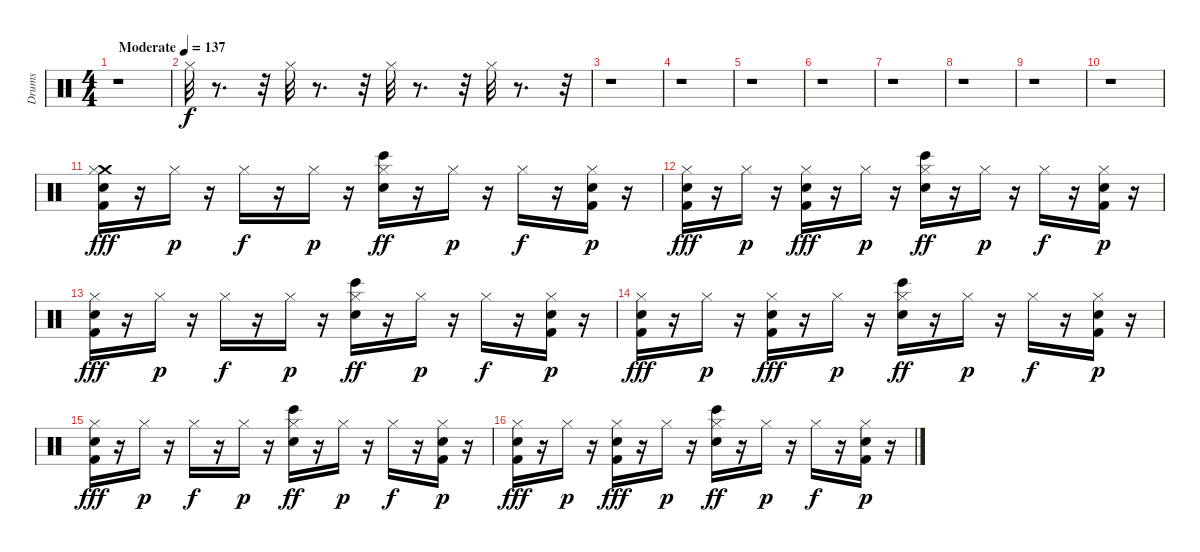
\track ("Drums" "Drums") {instrument percussion}
\staff {score}
\articulation defaults
\ts (4 4)
\tempo (137 "Moderate")
\clef neutral
\ks c
r.1{dy f} |
"Hi-Hat (closed)".32 r.8{d} r.32 "Hi-Hat (closed)".32 r.8{d} r.32 "Hi-Hat (closed)".32 r.8{d} r.32 "Hi-Hat (closed)".32 r.8{d} r.32 |
r.1 |
r.1 |
r.1 |
r.1 |
r.1 |
r.1 |
r.1 |
r.1 |
("Crash medium (hit)" "Kick (hit) 2" "Snare (hit)" "Hi-Hat (closed)").16{dy fff} r.16 "Hi-Hat (closed)".16{dy p} r.16 "Hi-Hat (closed)".16{dy f} r.16 "Hi-Hat (closed)".16{dy p} r.16 ("Snare (hit) 2" "Bongo High (hit)" "Hi-Hat (closed)").16{dy ff} r.16 "Hi-Hat (closed)".16{dy p} r.16 "Hi-Hat (closed)".16{dy f} r.16 ("Kick (hit) 2" "Snare (hit)" "Hi-Hat (closed)").16{dy p} r.16 |
("Kick (hit) 2" "Snare (hit)" "Hi-Hat (closed)").16{dy fff} r.16 "Hi-Hat (closed)".16{dy p} r.16 ("Kick (hit) 2" "Snare (hit)" "Hi-Hat (closed)").16{dy fff} r.16 "Hi-Hat (closed)".16{dy p} r.16 ("Snare (hit) 2" "Bongo High (hit)" "Hi-Hat (closed)").16{dy ff} r.16 "Hi-Hat (closed)".16{dy p} r.16 "Hi-Hat (closed)".16{dy f} r.16 ("Kick (hit) 2" "Snare (hit)" "Hi-Hat (closed)").16{dy p} r.16 |
("Kick (hit) 2" "Snare (hit)" "Hi-Hat (closed)").16{dy fff} r.16 "Hi-Hat (closed)".16{dy p} r.16 "Hi-Hat (closed)".16{dy f} r.16 "Hi-Hat (closed)".16{dy p} r.16 ("Snare (hit) 2" "Bongo High (hit)" "Hi-Hat (closed)").16{dy ff} r.16 "Hi-Hat (closed)".16{dy p} r.16 "Hi-Hat (closed)".16{dy f} r.16 ("Kick (hit) 2" "Snare (hit)" "Hi-Hat (closed)").16{dy p} r.16 |
("Kick (hit) 2" "Snare (hit)" "Hi-Hat (closed)").16{dy fff} r.16 "Hi-Hat (closed)".16{dy p} r.16 ("Kick (hit) 2" "Snare (hit)" "Hi-Hat (closed)").16{dy fff} r.16 "Hi-Hat (closed)".16{dy p} r.16 ("Snare (hit) 2" "Bongo High (hit)" "Hi-Hat (closed)").16{dy ff} r.16 "Hi-Hat (closed)".16{dy p} r.16 "Hi-Hat (closed)".16{dy f} r.16 ("Kick (hit) 2" "Snare (hit)" "Hi-Hat (closed)").16{dy p} r.16 |
("Kick (hit) 2" "Snare (hit)" "Hi-Hat (closed)").16{dy fff} r.16 "Hi-Hat (closed)".16{dy p} r.16 "Hi-Hat (closed)".16{dy f} r.16 "Hi-Hat (closed)".16{dy p} r.16 ("Snare (hit) 2" "Bongo High (hit)" "Hi-Hat (closed)").16{dy ff} r.16 "Hi-Hat (closed)".16{dy p} r.16 "Hi-Hat (closed)".16{dy f} r.16 ("Kick (hit) 2" "Snare (hit)" "Hi-Hat (closed)").16{dy p} r.16 |
("Kick (hit) 2" "Snare (hit)" "Hi-Hat (closed)").16{dy fff} r.16 "Hi-Hat (closed)".16{dy p} r.16 ("Kick (hit) 2" "Snare (hit)" "Hi-Hat (closed)").16{dy fff} r.16 "Hi-Hat (closed)".16{dy p} r.16 ("Snare (hit) 2" "Bongo High (hit)" "Hi-Hat (closed)").16{dy ff} r.16 "Hi-Hat (closed)".16{dy p} r.16 "Hi-Hat (closed)".16{dy f} r.16 ("Kick (hit) 2" "Snare (hit)" "Hi-Hat (closed)").16{dy p} r.16
